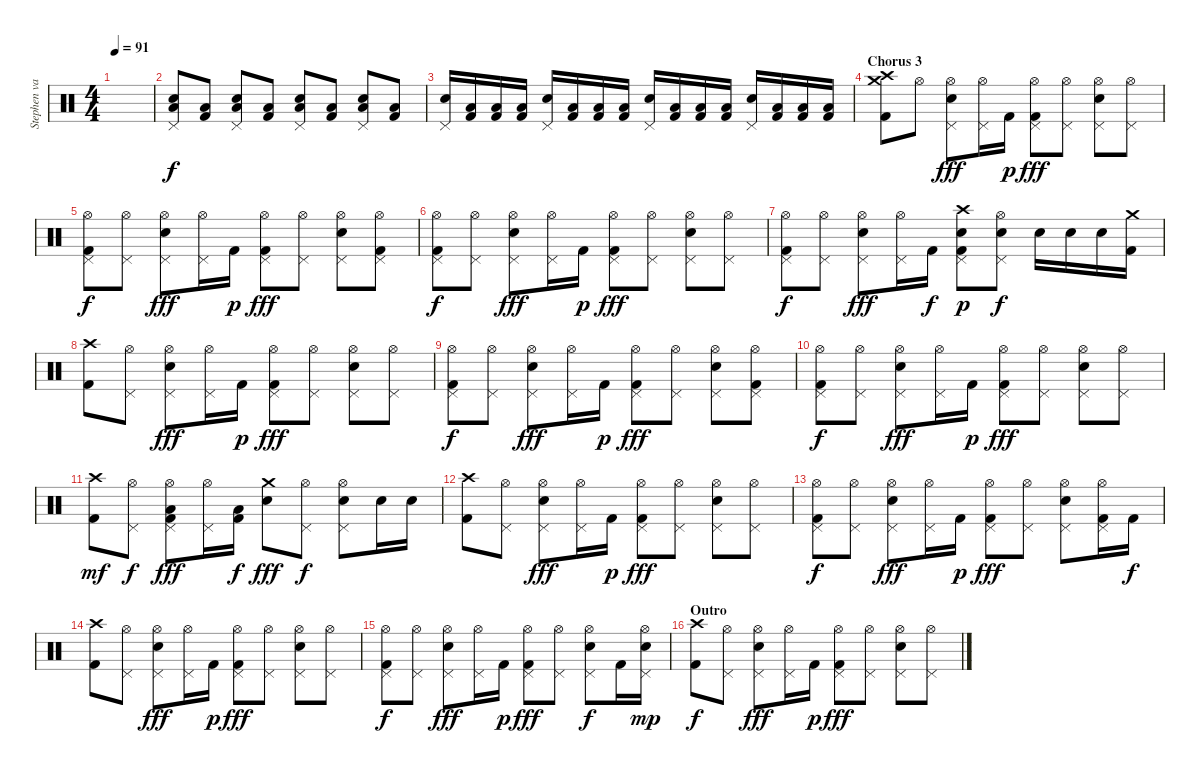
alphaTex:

\track ("Stephen van Haestregt" "Stephen va") {instrument percussion}
\staff {score}
\articulation defaults
\ts (4 4)
\tempo 91
\clef neutral
\ks c
|
("Electric Snare (hit)" "Low Tom (hit)" "Pedal Hi-Hat (hit)").8{volume 13} ("Low Floor Tom (hit)" "Kick (hit) 2").8 ("Electric Snare (hit)" "Low Tom (hit)" "Pedal Hi-Hat (hit)").8 ("Low Floor Tom (hit)" "Kick (hit) 2").8 ("Electric Snare (hit)" "Low Tom (hit)" "Pedal Hi-Hat (hit)").8 ("Low Floor Tom (hit)" "Kick (hit) 2").8 ("Electric Snare (hit)" "Low Tom (hit)" "Pedal Hi-Hat (hit)").8 ("Low Floor Tom (hit)" "Kick (hit) 2").8 |
("Electric Snare (hit)" "Pedal Hi-Hat (hit)").16{volume 16} ("Low Tom (hit)" "Kick (hit) 2").16 ("Low Floor Tom (hit)" "Kick (hit) 2").16 ("Low Floor Tom (hit)" "Kick (hit) 2").16 ("Electric Snare (hit)" "Pedal Hi-Hat (hit)").16 ("Low Tom (hit)" "Kick (hit) 2").16 ("Low Floor Tom (hit)" "Kick (hit) 2").16 ("Low Floor Tom (hit)" "Kick (hit) 2").16 ("Electric Snare (hit)" "Pedal Hi-Hat (hit)").16 ("Low Tom (hit)" "Kick (hit) 2").16 ("Low Floor Tom (hit)" "Kick (hit) 2").16 ("Low Floor Tom (hit)" "Kick (hit) 2").16 ("Electric Snare (hit)" "Pedal Hi-Hat (hit)").16 ("Low Tom (hit)" "Kick (hit) 2").16 ("Low Floor Tom (hit)" "Kick (hit) 2").16 ("Low Floor Tom (hit)" "Kick (hit) 2").16 |
\section ("" "Chorus 3")
("Crash high (hit)" "Crash medium (hit)" "Kick (hit) 2").8{dy f} "Hi-Hat (open)".8 ("Pedal Hi-Hat (hit)" "Hi-Hat (open)" "Electric Snare (hit)").8{dy fff} ("Pedal Hi-Hat (hit)" "Hi-Hat (open)").16 "Kick (hit) 2".16{dy p} ("Pedal Hi-Hat (hit)" "Hi-Hat (open)" "Kick (hit) 2").8{dy fff} ("Pedal Hi-Hat (hit)" "Hi-Hat (open)").8 ("Pedal Hi-Hat (hit)" "Hi-Hat (open)" "Electric Snare (hit)").8 ("Pedal Hi-Hat (hit)" "Hi-Hat (open)").8 |
("Pedal Hi-Hat (hit)" "Hi-Hat (open)" "Kick (hit) 2").8{dy f} ("Pedal Hi-Hat (hit)" "Hi-Hat (open)").8 ("Pedal Hi-Hat (hit)" "Hi-Hat (open)" "Electric Snare (hit)").8{dy fff} ("Pedal Hi-Hat (hit)" "Hi-Hat (open)").16 "Kick (hit) 2".16{dy p} ("Pedal Hi-Hat (hit)" "Hi-Hat (open)" "Kick (hit) 2").8{dy fff} ("Pedal Hi-Hat (hit)" "Hi-Hat (open)").8 ("Pedal Hi-Hat (hit)" "Hi-Hat (open)" "Electric Snare (hit)").8 ("Pedal Hi-Hat (hit)" "Hi-Hat (open)" "Kick (hit) 2").8 |
("Pedal Hi-Hat (hit)" "Hi-Hat (open)" "Kick (hit) 2").8{dy f} ("Pedal Hi-Hat (hit)" "Hi-Hat (open)").8 ("Pedal Hi-Hat (hit)" "Hi-Hat (open)" "Electric Snare (hit)").8{dy fff} ("Pedal Hi-Hat (hit)" "Hi-Hat (open)").16 "Kick (hit) 2".16{dy p} ("Pedal Hi-Hat (hit)" "Hi-Hat (open)" "Kick (hit) 2").8{dy fff} ("Pedal Hi-Hat (hit)" "Hi-Hat (open)").8 ("Pedal Hi-Hat (hit)" "Hi-Hat (open)" "Electric Snare (hit)").8 ("Pedal Hi-Hat (hit)" "Hi-Hat (open)").8 |
("Pedal Hi-Hat (hit)" "Hi-Hat (open)" "Kick (hit) 2").8{dy f} ("Pedal Hi-Hat (hit)" "Hi-Hat (open)").8 ("Pedal Hi-Hat (hit)" "Hi-Hat (open)" "Electric Snare (hit)").8{dy fff} ("Pedal Hi-Hat (hit)" "Hi-Hat (open)").16 "Kick (hit) 2".16{dy f} ("Pedal Hi-Hat (hit)" "Crash high (hit)" "Kick (hit) 2" "Electric Snare (hit)").8{dy p} ("Pedal Hi-Hat (hit)" "Hi-Hat (open)" "Electric Snare (hit)").8{dy f} "Electric Snare (hit)".16 "Electric Snare (hit)".16 "Electric Snare (hit)".16 ("Crash medium (hit)" "Kick (hit) 2").16 |
("Crash high (hit)" "Kick (hit) 2").8 ("Pedal Hi-Hat (hit)" "Hi-Hat (open)").8 ("Pedal Hi-Hat (hit)" "Hi-Hat (open)" "Electric Snare (hit)").8{dy fff} ("Pedal Hi-Hat (hit)" "Hi-Hat (open)").16 "Kick (hit) 2".16{dy p} ("Pedal Hi-Hat (hit)" "Hi-Hat (open)" "Kick (hit) 2").8{dy fff} ("Pedal Hi-Hat (hit)" "Hi-Hat (open)").8 ("Pedal Hi-Hat (hit)" "Hi-Hat (open)" "Electric Snare (hit)").8 ("Pedal Hi-Hat (hit)" "Hi-Hat (open)").8 |
("Pedal Hi-Hat (hit)" "Hi-Hat (open)" "Kick (hit) 2").8{dy f} ("Pedal Hi-Hat (hit)" "Hi-Hat (open)").8 ("Pedal Hi-Hat (hit)" "Hi-Hat (open)" "Electric Snare (hit)").8{dy fff} ("Pedal Hi-Hat (hit)" "Hi-Hat (open)").16 "Kick (hit) 2".16{dy p} ("Pedal Hi-Hat (hit)" "Hi-Hat (open)" "Kick (hit) 2").8{dy fff} ("Pedal Hi-Hat (hit)" "Hi-Hat (open)").8 ("Pedal Hi-Hat (hit)" "Hi-Hat (open)" "Electric Snare (hit)").8 ("Pedal Hi-Hat (hit)" "Hi-Hat (open)" "Kick (hit) 2").8 |
("Pedal Hi-Hat (hit)" "Hi-Hat (open)" "Kick (hit) 2").8{dy f} ("Pedal Hi-Hat (hit)" "Hi-Hat (open)").8 ("Pedal Hi-Hat (hit)" "Hi-Hat (open)" "Electric Snare (hit)").8{dy fff} ("Pedal Hi-Hat (hit)" "Hi-Hat (open)").16 "Kick (hit) 2".16{dy p} ("Pedal Hi-Hat (hit)" "Hi-Hat (open)" "Kick (hit) 2").8{dy fff} ("Pedal Hi-Hat (hit)" "Hi-Hat (open)").8 ("Pedal Hi-Hat (hit)" "Hi-Hat (open)" "Electric Snare (hit)").8 ("Pedal Hi-Hat (hit)" "Hi-Hat (open)").8 |
("Crash high (hit)" "Kick (hit) 2").8{dy mf} ("Pedal Hi-Hat (hit)" "Hi-Hat (open)").8{dy f} ("Pedal Hi-Hat (hit)" "Hi-Hat (open)" "Low Tom (hit)" "Kick (hit) 2").8{dy fff} ("Pedal Hi-Hat (hit)" "Hi-Hat (open)").16 ("Low Floor Tom (hit)" "Kick (hit) 2").16{dy f} ("Crash medium (hit)" "Electric Snare (hit)").8{dy fff} ("Pedal Hi-Hat (hit)" "Hi-Hat (open)").8{dy f} ("Pedal Hi-Hat (hit)" "Hi-Hat (open)" "Electric Snare (hit)").8 "Electric Snare (hit)".16 "Electric Snare (hit)".16 |
("Crash high (hit)" "Kick (hit) 2").8 ("Pedal Hi-Hat (hit)" "Hi-Hat (open)").8 ("Pedal Hi-Hat (hit)" "Hi-Hat (open)" "Electric Snare (hit)").8{dy fff} ("Pedal Hi-Hat (hit)" "Hi-Hat (open)").16 "Kick (hit) 2".16{dy p} ("Pedal Hi-Hat (hit)" "Hi-Hat (open)" "Kick (hit) 2").8{dy fff} ("Pedal Hi-Hat (hit)" "Hi-Hat (open)").8 ("Pedal Hi-Hat (hit)" "Hi-Hat (open)" "Electric Snare (hit)").8 ("Pedal Hi-Hat (hit)" "Hi-Hat (open)").8 |
("Pedal Hi-Hat (hit)" "Hi-Hat (open)" "Kick (hit) 2").8{dy f} ("Pedal Hi-Hat (hit)" "Hi-Hat (open)").8 ("Pedal Hi-Hat (hit)" "Hi-Hat (open)" "Electric Snare (hit)").8{dy fff} ("Pedal Hi-Hat (hit)" "Hi-Hat (open)").16 "Kick (hit) 2".16{dy p} ("Pedal Hi-Hat (hit)" "Hi-Hat (open)" "Kick (hit) 2").8{dy fff} ("Pedal Hi-Hat (hit)" "Hi-Hat (open)").8 ("Pedal Hi-Hat (hit)" "Hi-Hat (open)" "Electric Snare (hit)").8 ("Pedal Hi-Hat (hit)" "Hi-Hat (open)" "Kick (hit) 2").16 "Kick (hit) 2".16{dy f} |
("Crash high (hit)" "Kick (hit) 2").8 ("Pedal Hi-Hat (hit)" "Hi-Hat (open)").8 ("Pedal Hi-Hat (hit)" "Hi-Hat (open)" "Electric Snare (hit)").8{dy fff} ("Pedal Hi-Hat (hit)" "Hi-Hat (open)").16 "Kick (hit) 2".16{dy p} ("Pedal Hi-Hat (hit)" "Hi-Hat (open)" "Kick (hit) 2").8{dy fff} ("Pedal Hi-Hat (hit)" "Hi-Hat (open)").8 ("Pedal Hi-Hat (hit)" "Hi-Hat (open)" "Electric Snare (hit)").8 ("Pedal Hi-Hat (hit)" "Hi-Hat (open)").8 |
("Pedal Hi-Hat (hit)" "Hi-Hat (open)" "Kick (hit) 2").8{dy f} ("Pedal Hi-Hat (hit)" "Hi-Hat (open)").8 ("Pedal Hi-Hat (hit)" "Hi-Hat (open)" "Electric Snare (hit)").8{dy fff} ("Pedal Hi-Hat (hit)" "Hi-Hat (open)").16 "Kick (hit) 2".16{dy p} ("Pedal Hi-Hat (hit)" "Hi-Hat (open)" "Kick (hit) 2").8{dy fff} ("Pedal Hi-Hat (hit)" "Hi-Hat (open)").8 ("Pedal Hi-Hat (hit)" "Hi-Hat (open)" "Electric Snare (hit)").8{dy f} "Kick (hit) 2".16 ("Pedal Hi-Hat (hit)" "Hi-Hat (open)" "Electric Snare (hit)").16{dy mp} |
\section ("" "Outro")
("Crash high (hit)" "Kick (hit) 2").8{dy f} ("Pedal Hi-Hat (hit)" "Hi-Hat (open)").8 ("Pedal Hi-Hat (hit)" "Hi-Hat (open)" "Electric Snare (hit)").8{dy fff} ("Pedal Hi-Hat (hit)" "Hi-Hat (open)").16 "Kick (hit) 2".16{dy p} ("Pedal Hi-Hat (hit)" "Hi-Hat (open)" "Kick (hit) 2").8{dy fff} ("Pedal Hi-Hat (hit)" "Hi-Hat (open)").8 ("Pedal Hi-Hat (hit)" "Hi-Hat (open)" "Electric Snare (hit)").8 ("Pedal Hi-Hat (hit)" "Hi-Hat (open)").8
